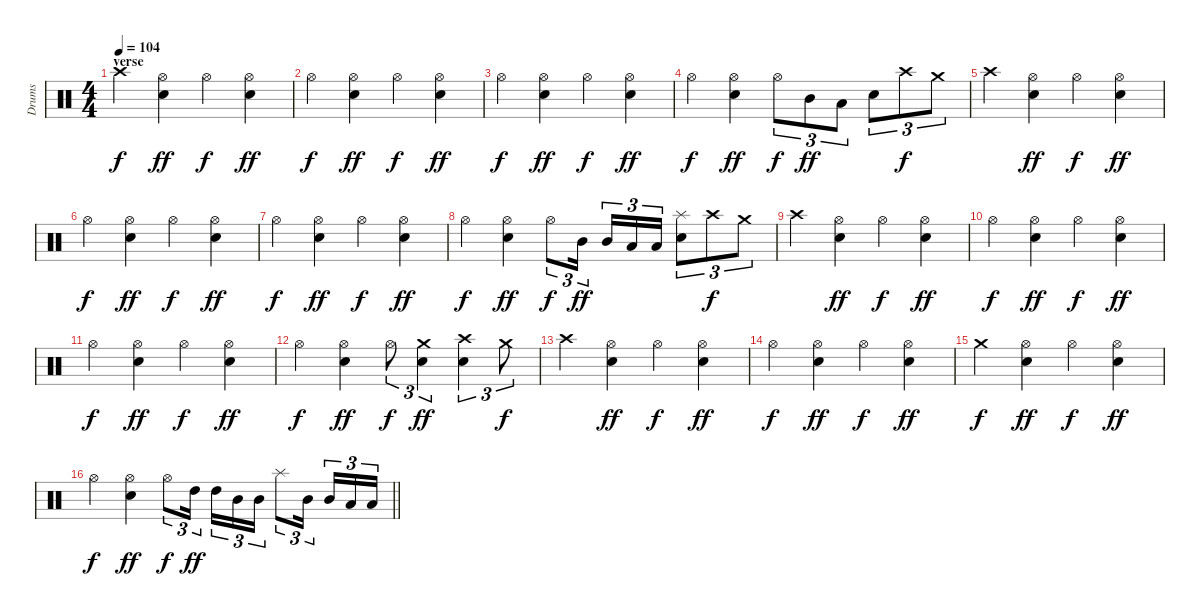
\track ("Drums" "Drums") {instrument percussion}
\staff {score}
\articulation defaults
\ts (4 4)
\section ("" "verse")
\tempo 104
\clef neutral
\ks c "Crash high (hit)".4{dy f}
("Hi-Hat (open)" "Snare (hit) 2").4{dy ff} "Hi-Hat (open)".4{dy f} ("Hi-Hat (open)" "Snare (hit) 2").4{dy ff} |
"Hi-Hat (open)".4{dy f} ("Hi-Hat (open)" "Snare (hit) 2").4{dy ff} "Hi-Hat (open)".4{dy f} ("Hi-Hat (open)" "Snare (hit) 2").4{dy ff} |
"Hi-Hat (open)".4{dy f} ("Hi-Hat (open)" "Snare (hit) 2").4{dy ff} "Hi-Hat (open)".4{dy f} ("Hi-Hat (open)" "Snare (hit) 2").4{dy ff} |
"Hi-Hat (open)".4{dy f} ("Hi-Hat (open)" "Snare (hit) 2").4{dy ff} "Hi-Hat (open)".8{tu (3 2) dy f} "Mid Tom (hit)".8{tu (3 2) dy ff} "Low Tom (hit)".8{tu (3 2)} "Snare (hit) 2".8{tu (3 2)} "Crash high (hit)".8{tu (3 2) dy f} "Crash medium (hit)".8{tu (3 2)} |
"Crash high (hit)".4 ("Hi-Hat (open)" "Snare (hit) 2").4{dy ff} "Hi-Hat (open)".4{dy f} ("Hi-Hat (open)" "Snare (hit) 2").4{dy ff} |
"Hi-Hat (open)".4{dy f} ("Hi-Hat (open)" "Snare (hit) 2").4{dy ff} "Hi-Hat (open)".4{dy f} ("Hi-Hat (open)" "Snare (hit) 2").4{dy ff} |
"Hi-Hat (open)".4{dy f} ("Hi-Hat (open)" "Snare (hit) 2").4{dy ff} "Hi-Hat (open)".4{dy f} ("Hi-Hat (open)" "Snare (hit) 2").4{dy ff} |
"Hi-Hat (open)".4{dy f} ("Hi-Hat (open)" "Snare (hit) 2").4{dy ff} "Hi-Hat (open)".8{tu (3 2) dy f} "Mid Tom (hit)".16{tu (3 2) dy ff beam splitsecondary} "Mid Tom (hit)".16{tu (3 2)} "Low Tom (hit)".16{tu (3 2)} "Low Tom (hit)".16{tu (3 2)} ("Splash (hit)" "Snare (hit) 2").8{tu (3 2)} "Crash high (hit)".8{tu (3 2) dy f} "Crash medium (hit)".8{tu (3 2)} |
"Crash high (hit)".4 ("Hi-Hat (open)" "Snare (hit) 2").4{dy ff} "Hi-Hat (open)".4{dy f} ("Hi-Hat (open)" "Snare (hit) 2").4{dy ff} |
"Hi-Hat (open)".4{dy f} ("Hi-Hat (open)" "Snare (hit) 2").4{dy ff} "Hi-Hat (open)".4{dy f} ("Hi-Hat (open)" "Snare (hit) 2").4{dy ff} |
"Hi-Hat (open)".4{dy f} ("Hi-Hat (open)" "Snare (hit) 2").4{dy ff} "Hi-Hat (open)".4{dy f} ("Hi-Hat (open)" "Snare (hit) 2").4{dy ff} |
"Hi-Hat (open)".4{dy f} ("Hi-Hat (open)" "Snare (hit) 2").4{dy ff} "Hi-Hat (open)".8{tu (3 2) dy f} ("Crash medium (hit)" "Snare (hit) 2").4{tu (3 2) dy ff} ("Crash high (hit)" "Snare (hit) 2").4{tu (3 2)} "Crash medium (hit)".8{tu (3 2) dy f} |
"Crash high (hit)".4 ("Hi-Hat (open)" "Snare (hit) 2").4{dy ff} "Hi-Hat (open)".4{dy f} ("Hi-Hat (open)" "Snare (hit) 2").4{dy ff} |
"Hi-Hat (open)".4{dy f} ("Hi-Hat (open)" "Snare (hit) 2").4{dy ff} "Hi-Hat (open)".4{dy f} ("Hi-Hat (open)" "Snare (hit) 2").4{dy ff} |
"Crash medium (hit)".4{dy f} ("Hi-Hat (open)" "Snare (hit) 2").4{dy ff} "Hi-Hat (open)".4{dy f} ("Hi-Hat (open)" "Snare (hit) 2").4{dy ff} |
\barLineRight lightlight "Hi-Hat (open)".4{dy f}
("Hi-Hat (open)" "Snare (hit) 2").4{dy ff} "Hi-Hat (open)".8{tu (3 2) dy f} "High Tom (hit)".16{tu (3 2) dy ff beam splitsecondary} "High Tom (hit)".16{tu (3 2)} "Mid Tom (hit)".16{tu (3 2)} "Mid Tom (hit)".16{tu (3 2)} "Splash (hit)".8{tu (3 2)} "Mid Tom (hit)".16{tu (3 2) beam splitsecondary} "Mid Tom (hit)".16{tu (3 2)} "Low Tom (hit)".16{tu (3 2)} "Low Tom (hit)".16{tu (3 2)}
